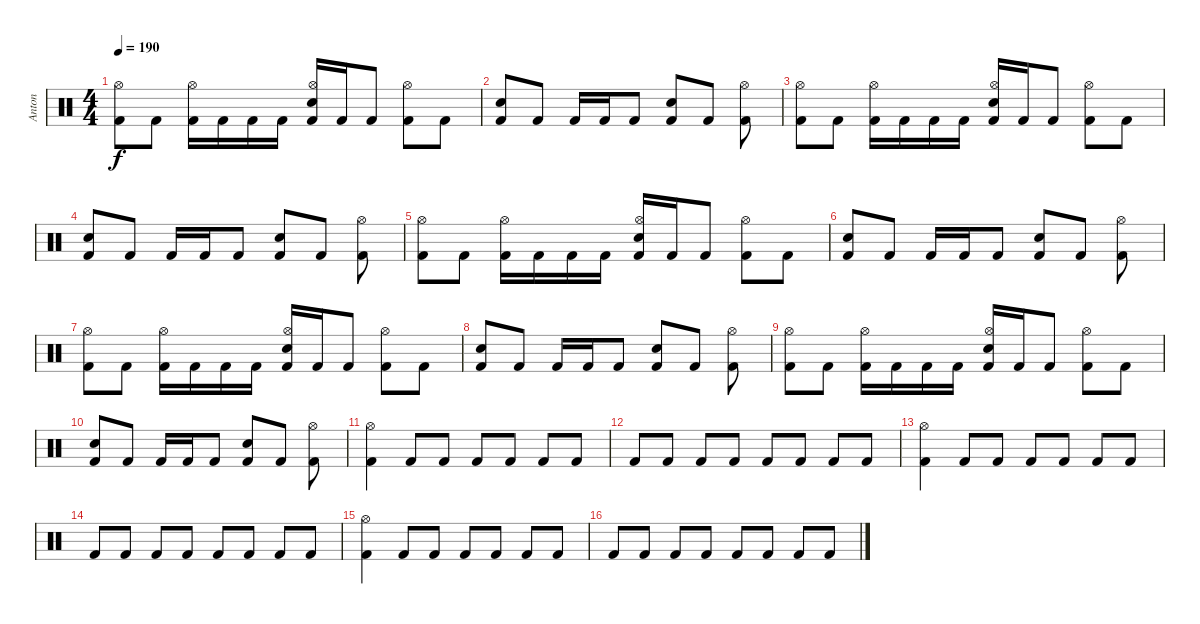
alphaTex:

\track ("Anton" "Anton") {instrument percussion}
\staff {score}
\articulation defaults
\ts (4 4)
\tempo 190
\clef neutral
\ks c
("Kick (hit) 2" "Hi-Hat (open)").8{dy f} "Kick (hit) 2".8 ("Hi-Hat (open)" "Kick (hit) 2").16 "Kick (hit) 2".16 "Kick (hit) 2".16 "Kick (hit) 2".16 ("Hi-Hat (open)" "Electric Snare (hit)" "Kick (hit) 2").16 "Kick (hit) 2".16 "Kick (hit) 2".8 ("Hi-Hat (open)" "Kick (hit) 2").8 "Kick (hit) 2".8 |
("Kick (hit) 2" "Snare (hit) 2").8 "Kick (hit) 2".8 "Kick (hit) 2".16 "Kick (hit) 2".16 "Kick (hit) 2".8 ("Kick (hit) 2" "Snare (hit) 2").8 "Kick (hit) 2".8 ("Kick (hit) 2" "Hi-Hat (open)").8 |
("Kick (hit) 2" "Hi-Hat (open)").8 "Kick (hit) 2".8 ("Hi-Hat (open)" "Kick (hit) 2").16 "Kick (hit) 2".16 "Kick (hit) 2".16 "Kick (hit) 2".16 ("Hi-Hat (open)" "Electric Snare (hit)" "Kick (hit) 2").16 "Kick (hit) 2".16 "Kick (hit) 2".8 ("Hi-Hat (open)" "Kick (hit) 2").8 "Kick (hit) 2".8 |
("Kick (hit) 2" "Snare (hit) 2").8 "Kick (hit) 2".8 "Kick (hit) 2".16 "Kick (hit) 2".16 "Kick (hit) 2".8 ("Kick (hit) 2" "Snare (hit) 2").8 "Kick (hit) 2".8 ("Kick (hit) 2" "Hi-Hat (open)").8 |
("Kick (hit) 2" "Hi-Hat (open)").8 "Kick (hit) 2".8 ("Hi-Hat (open)" "Kick (hit) 2").16 "Kick (hit) 2".16 "Kick (hit) 2".16 "Kick (hit) 2".16 ("Hi-Hat (open)" "Electric Snare (hit)" "Kick (hit) 2").16 "Kick (hit) 2".16 "Kick (hit) 2".8 ("Hi-Hat (open)" "Kick (hit) 2").8 "Kick (hit) 2".8 |
("Kick (hit) 2" "Snare (hit) 2").8 "Kick (hit) 2".8 "Kick (hit) 2".16 "Kick (hit) 2".16 "Kick (hit) 2".8 ("Kick (hit) 2" "Snare (hit) 2").8 "Kick (hit) 2".8 ("Kick (hit) 2" "Hi-Hat (open)").8 |
("Kick (hit) 2" "Hi-Hat (open)").8 "Kick (hit) 2".8 ("Hi-Hat (open)" "Kick (hit) 2").16 "Kick (hit) 2".16 "Kick (hit) 2".16 "Kick (hit) 2".16 ("Hi-Hat (open)" "Electric Snare (hit)" "Kick (hit) 2").16 "Kick (hit) 2".16 "Kick (hit) 2".8 ("Hi-Hat (open)" "Kick (hit) 2").8 "Kick (hit) 2".8 |
("Kick (hit) 2" "Snare (hit) 2").8 "Kick (hit) 2".8 "Kick (hit) 2".16 "Kick (hit) 2".16 "Kick (hit) 2".8 ("Kick (hit) 2" "Snare (hit) 2").8 "Kick (hit) 2".8 ("Kick (hit) 2" "Hi-Hat (open)").8 |
("Kick (hit) 2" "Hi-Hat (open)").8 "Kick (hit) 2".8 ("Hi-Hat (open)" "Kick (hit) 2").16 "Kick (hit) 2".16 "Kick (hit) 2".16 "Kick (hit) 2".16 ("Hi-Hat (open)" "Electric Snare (hit)" "Kick (hit) 2").16 "Kick (hit) 2".16 "Kick (hit) 2".8 ("Hi-Hat (open)" "Kick (hit) 2").8 "Kick (hit) 2".8 |
("Kick (hit) 2" "Snare (hit) 2").8 "Kick (hit) 2".8 "Kick (hit) 2".16 "Kick (hit) 2".16 "Kick (hit) 2".8 ("Kick (hit) 2" "Snare (hit) 2").8 "Kick (hit) 2".8 ("Kick (hit) 2" "Hi-Hat (open)").8 |
("Kick (hit) 2" "Hi-Hat (open)").4 "Kick (hit) 2".8 "Kick (hit) 2".8 "Kick (hit) 2".8 "Kick (hit) 2".8 "Kick (hit) 2".8 "Kick (hit) 2".8 |
"Kick (hit) 2".8 "Kick (hit) 2".8 "Kick (hit) 2".8 "Kick (hit) 2".8 "Kick (hit) 2".8 "Kick (hit) 2".8 "Kick (hit) 2".8 "Kick (hit) 2".8 |
("Kick (hit) 2" "Hi-Hat (open)").4 "Kick (hit) 2".8 "Kick (hit) 2".8 "Kick (hit) 2".8 "Kick (hit) 2".8 "Kick (hit) 2".8 "Kick (hit) 2".8 |
"Kick (hit) 2".8 "Kick (hit) 2".8 "Kick (hit) 2".8 "Kick (hit) 2".8 "Kick (hit) 2".8 "Kick (hit) 2".8 "Kick (hit) 2".8 "Kick (hit) 2".8 |
("Kick (hit) 2" "Hi-Hat (open)").4 "Kick (hit) 2".8 "Kick (hit) 2".8 "Kick (hit) 2".8 "Kick (hit) 2".8 "Kick (hit) 2".8 "Kick (hit) 2".8 |
"Kick (hit) 2".8 "Kick (hit) 2".8 "Kick (hit) 2".8 "Kick (hit) 2".8 "Kick (hit) 2".8 "Kick (hit) 2".8 "Kick (hit) 2".8 "Kick (hit) 2".8
